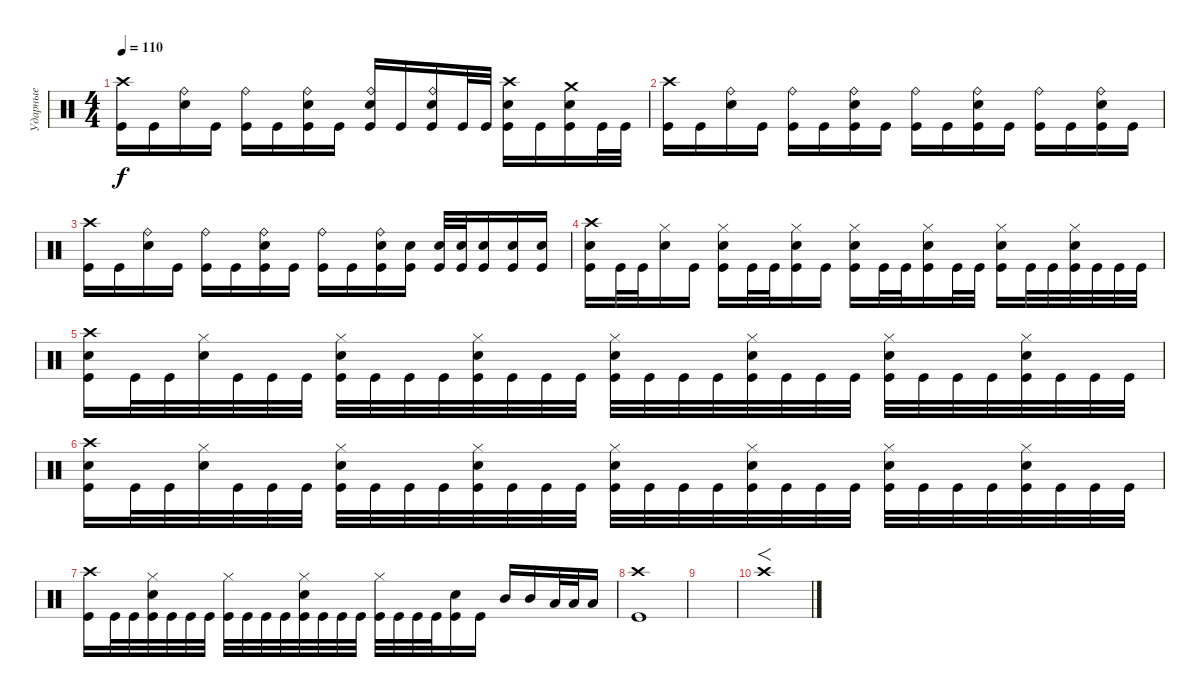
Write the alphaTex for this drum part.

\track ("Ударные" "Ударные") {instrument percussion}
\staff {score}
\articulation defaults
\ts (4 4)
\tempo 110
\clef neutral
\ks c
("Crash high (hit)" "Kick (hit)").16{dy f} "Kick (hit)".16 ("Ride (bell)" "Electric Snare (hit)").16 "Kick (hit)".16 ("Ride (bell)" "Kick (hit)").16 "Kick (hit)".16 ("Ride (bell)" "Electric Snare (hit)" "Kick (hit)").16 "Kick (hit)".16 ("Ride (bell)" "Electric Snare (hit)" "Kick (hit)").16 "Kick (hit)".16 ("Ride (bell)" "Electric Snare (hit)" "Kick (hit)").16 "Kick (hit)".32 "Kick (hit)".32 ("Crash high (hit)" "Electric Snare (hit)" "Kick (hit)").16 "Kick (hit)".16 ("Crash medium (hit)" "Electric Snare (hit)" "Kick (hit)").16 "Kick (hit)".32 "Kick (hit)".32 |
("Crash high (hit)" "Kick (hit)").16 "Kick (hit)".16 ("Ride (bell)" "Electric Snare (hit)").16 "Kick (hit)".16 ("Ride (bell)" "Kick (hit)").16 "Kick (hit)".16 ("Ride (bell)" "Electric Snare (hit)" "Kick (hit)").16 "Kick (hit)".16 ("Ride (bell)" "Kick (hit)").16 "Kick (hit)".16 ("Ride (bell)" "Electric Snare (hit)" "Kick (hit)").16 "Kick (hit)".16 ("Ride (bell)" "Kick (hit)").16 "Kick (hit)".16 ("Ride (bell)" "Electric Snare (hit)" "Kick (hit)").16 "Kick (hit)".16 |
("Crash high (hit)" "Kick (hit)").16 "Kick (hit)".16 ("Ride (bell)" "Electric Snare (hit)").16 "Kick (hit)".16 ("Ride (bell)" "Kick (hit)").16 "Kick (hit)".16 ("Ride (bell)" "Electric Snare (hit)" "Kick (hit)").16 "Kick (hit)".16 ("Ride (bell)" "Kick (hit)").16 "Kick (hit)".16 ("Ride (bell)" "Electric Snare (hit)" "Kick (hit)").16 ("Electric Snare (hit)" "Kick (hit)").16 ("Electric Snare (hit)" "Kick (hit)").32 ("Electric Snare (hit)" "Kick (hit)").32 ("Electric Snare (hit)" "Kick (hit)").16 ("Electric Snare (hit)" "Kick (hit)").16 ("Electric Snare (hit)" "Kick (hit)").16 |
("Crash high (hit)" "Electric Snare (hit)" "Kick (hit)").16 "Kick (hit)".32 "Kick (hit)".32 ("Hi-Hat (closed)" "Electric Snare (hit)").16 "Kick (hit)".16 ("Hi-Hat (closed)" "Electric Snare (hit)" "Kick (hit)").16 "Kick (hit)".32 "Kick (hit)".32 ("Hi-Hat (closed)" "Electric Snare (hit)" "Kick (hit)").16 "Kick (hit)".16 ("Hi-Hat (closed)" "Electric Snare (hit)" "Kick (hit)").16 "Kick (hit)".32 "Kick (hit)".32 ("Hi-Hat (closed)" "Electric Snare (hit)" "Kick (hit)").16 "Kick (hit)".32 "Kick (hit)".32 ("Hi-Hat (closed)" "Electric Snare (hit)" "Kick (hit)").16 "Kick (hit)".32 "Kick (hit)".32 ("Hi-Hat (closed)" "Electric Snare (hit)" "Kick (hit)").32 "Kick (hit)".32 "Kick (hit)".32 "Kick (hit)".32 |
("Crash high (hit)" "Electric Snare (hit)" "Kick (hit)").16 "Kick (hit)".32 "Kick (hit)".32 ("Hi-Hat (closed)" "Electric Snare (hit)").32 "Kick (hit)".32 "Kick (hit)".32 "Kick (hit)".32 ("Hi-Hat (closed)" "Electric Snare (hit)" "Kick (hit)").32 "Kick (hit)".32 "Kick (hit)".32 "Kick (hit)".32 ("Hi-Hat (closed)" "Electric Snare (hit)" "Kick (hit)").32 "Kick (hit)".32 "Kick (hit)".32 "Kick (hit)".32 ("Hi-Hat (closed)" "Electric Snare (hit)" "Kick (hit)").32 "Kick (hit)".32 "Kick (hit)".32 "Kick (hit)".32 ("Hi-Hat (closed)" "Electric Snare (hit)" "Kick (hit)").32 "Kick (hit)".32 "Kick (hit)".32 "Kick (hit)".32 ("Hi-Hat (closed)" "Electric Snare (hit)" "Kick (hit)").32 "Kick (hit)".32 "Kick (hit)".32 "Kick (hit)".32 ("Hi-Hat (closed)" "Electric Snare (hit)" "Kick (hit)").32 "Kick (hit)".32 "Kick (hit)".32 "Kick (hit)".32 |
("Crash high (hit)" "Electric Snare (hit)" "Kick (hit)").16 "Kick (hit)".32 "Kick (hit)".32 ("Hi-Hat (closed)" "Electric Snare (hit)").32 "Kick (hit)".32 "Kick (hit)".32 "Kick (hit)".32 ("Hi-Hat (closed)" "Electric Snare (hit)" "Kick (hit)").32 "Kick (hit)".32 "Kick (hit)".32 "Kick (hit)".32 ("Hi-Hat (closed)" "Electric Snare (hit)" "Kick (hit)").32 "Kick (hit)".32 "Kick (hit)".32 "Kick (hit)".32 ("Hi-Hat (closed)" "Electric Snare (hit)" "Kick (hit)").32 "Kick (hit)".32 "Kick (hit)".32 "Kick (hit)".32 ("Hi-Hat (closed)" "Electric Snare (hit)" "Kick (hit)").32 "Kick (hit)".32 "Kick (hit)".32 "Kick (hit)".32 ("Hi-Hat (closed)" "Electric Snare (hit)" "Kick (hit)").32 "Kick (hit)".32 "Kick (hit)".32 "Kick (hit)".32 ("Hi-Hat (closed)" "Electric Snare (hit)" "Kick (hit)").32 "Kick (hit)".32 "Kick (hit)".32 "Kick (hit)".32 |
("Crash high (hit)" "Kick (hit)").16 "Kick (hit)".32 "Kick (hit)".32 ("Hi-Hat (closed)" "Electric Snare (hit)" "Kick (hit)").32 "Kick (hit)".32 "Kick (hit)".32 "Kick (hit)".32 ("Hi-Hat (closed)" "Kick (hit)").32 "Kick (hit)".32 "Kick (hit)".32 "Kick (hit)".32 ("Hi-Hat (closed)" "Electric Snare (hit)" "Kick (hit)").32 "Kick (hit)".32 "Kick (hit)".32 "Kick (hit)".32 ("Hi-Hat (closed)" "Kick (hit)").32 "Kick (hit)".32 "Kick (hit)".32 "Kick (hit)".32 ("Electric Snare (hit)" "Kick (hit)").16 "Kick (hit)".16 "Mid Tom (hit)".16 "Mid Tom (hit)".16 "Low Tom (hit)".32 "Low Tom (hit)".32 "Low Tom (hit)".16 |
("Crash high (hit)" "Kick (hit)").1 |
|
"Crash high (hit)".1{f}
